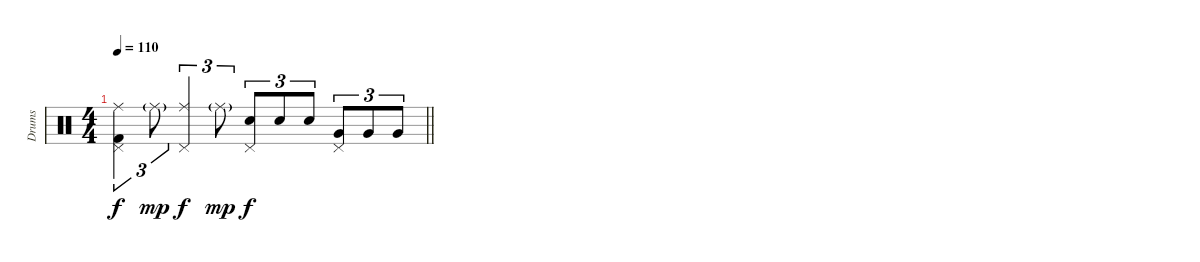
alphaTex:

\track ("Drums" "Drums") {instrument percussion}
\staff {score}
\articulation defaults
\ts (4 4)
\tempo 110
\clef neutral
\barLineRight lightlight
\ks c
("Ride (middle)" "Pedal Hi-Hat (hit)" "Kick (hit) 2").4{tu (3 2) dy f} "Ride (middle)"{g}.8{tu (3 2) dy mp} ("Ride (middle)" "Pedal Hi-Hat (hit)").4{tu (3 2) dy f} "Ride (middle)"{g}.8{tu (3 2) dy mp} ("Pedal Hi-Hat (hit)" "Electric Snare (hit)").8{tu (3 2) dy f} "Electric Snare (hit)".8{tu (3 2)} "Electric Snare (hit)".8{tu (3 2)} ("Pedal Hi-Hat (hit)" "Very Low Tom (hit)").8{tu (3 2)} "Very Low Tom (hit)".8{tu (3 2)} "Very Low Tom (hit)".8{tu (3 2)}
